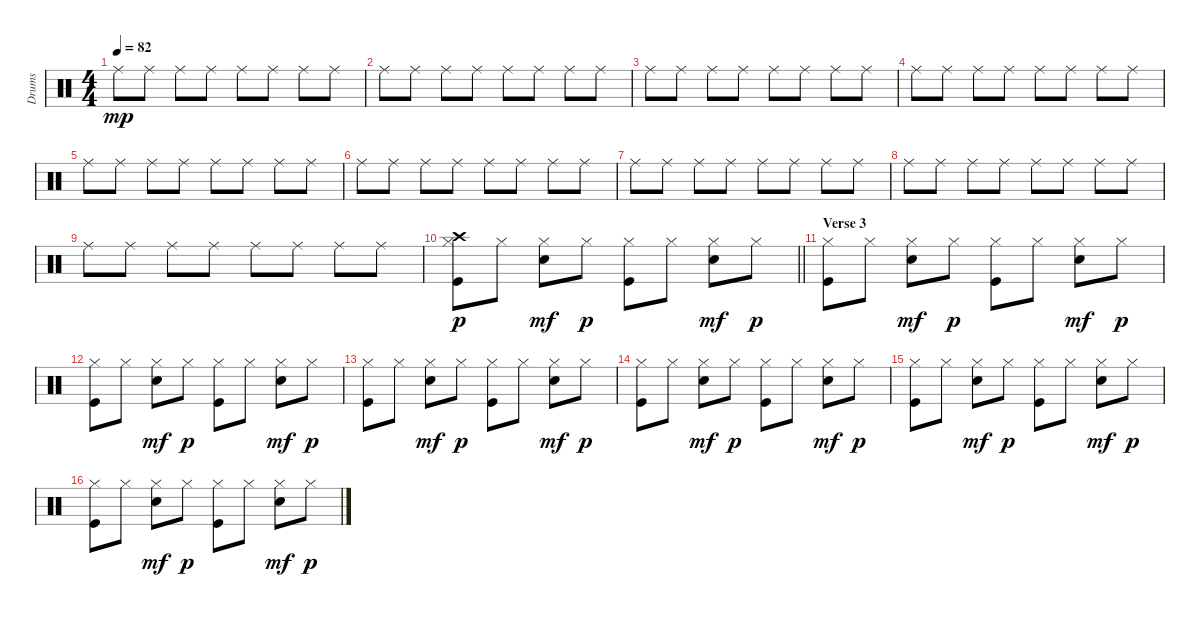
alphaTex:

\track ("Drums" "Drums") {instrument percussion}
\staff {score}
\articulation defaults
\ts (4 4)
\tempo 82
\clef neutral
\ks c "Ride (middle)".8{dy mp} "Ride (middle)".8 "Ride (middle)".8 "Ride (middle)".8 "Ride (middle)".8 "Ride (middle)".8 "Ride (middle)".8 "Ride (middle)".8
|
"Ride (middle)".8 "Ride (middle)".8 "Ride (middle)".8 "Ride (middle)".8 "Ride (middle)".8 "Ride (middle)".8 "Ride (middle)".8 "Ride (middle)".8 |
"Ride (middle)".8 "Ride (middle)".8 "Ride (middle)".8 "Ride (middle)".8 "Ride (middle)".8 "Ride (middle)".8 "Ride (middle)".8 "Ride (middle)".8 |
"Ride (middle)".8 "Ride (middle)".8 "Ride (middle)".8 "Ride (middle)".8 "Ride (middle)".8 "Ride (middle)".8 "Ride (middle)".8 "Ride (middle)".8 |
"Ride (middle)".8 "Ride (middle)".8 "Ride (middle)".8 "Ride (middle)".8 "Ride (middle)".8 "Ride (middle)".8 "Ride (middle)".8 "Ride (middle)".8 |
"Ride (middle)".8 "Ride (middle)".8 "Ride (middle)".8 "Ride (middle)".8 "Ride (middle)".8 "Ride (middle)".8 "Ride (middle)".8 "Ride (middle)".8 |
"Ride (middle)".8 "Ride (middle)".8 "Ride (middle)".8 "Ride (middle)".8 "Ride (middle)".8 "Ride (middle)".8 "Ride (middle)".8 "Ride (middle)".8 |
"Ride (middle)".8 "Ride (middle)".8 "Ride (middle)".8 "Ride (middle)".8 "Ride (middle)".8 "Ride (middle)".8 "Ride (middle)".8 "Ride (middle)".8 |
"Ride (middle)".8 "Ride (middle)".8 "Ride (middle)".8 "Ride (middle)".8 "Ride (middle)".8 "Ride (middle)".8 "Ride (middle)".8 "Ride (middle)".8 |
\barLineRight lightlight
("Crash high (hit)" "Hi-Hat (closed)" "Kick (hit)").8{dy p} "Hi-Hat (closed)".8 ("Hi-Hat (closed)" "Snare (hit) 2").8{dy mf} "Hi-Hat (closed)".8{dy p} ("Hi-Hat (closed)" "Kick (hit)").8 "Hi-Hat (closed)".8 ("Hi-Hat (closed)" "Snare (hit) 2").8{dy mf} "Hi-Hat (closed)".8{dy p} |
\section ("" "Verse 3")
("Hi-Hat (closed)" "Kick (hit)").8 "Hi-Hat (closed)".8 ("Hi-Hat (closed)" "Snare (hit) 2").8{dy mf} "Hi-Hat (closed)".8{dy p} ("Hi-Hat (closed)" "Kick (hit)").8 "Hi-Hat (closed)".8 ("Hi-Hat (closed)" "Snare (hit) 2").8{dy mf} "Hi-Hat (closed)".8{dy p} |
("Hi-Hat (closed)" "Kick (hit)").8 "Hi-Hat (closed)".8 ("Hi-Hat (closed)" "Snare (hit) 2").8{dy mf} "Hi-Hat (closed)".8{dy p} ("Hi-Hat (closed)" "Kick (hit)").8 "Hi-Hat (closed)".8 ("Hi-Hat (closed)" "Snare (hit) 2").8{dy mf} "Hi-Hat (closed)".8{dy p} |
("Hi-Hat (closed)" "Kick (hit)").8 "Hi-Hat (closed)".8 ("Hi-Hat (closed)" "Snare (hit) 2").8{dy mf} "Hi-Hat (closed)".8{dy p} ("Hi-Hat (closed)" "Kick (hit)").8 "Hi-Hat (closed)".8 ("Hi-Hat (closed)" "Snare (hit) 2").8{dy mf} "Hi-Hat (closed)".8{dy p} |
("Hi-Hat (closed)" "Kick (hit)").8 "Hi-Hat (closed)".8 ("Hi-Hat (closed)" "Snare (hit) 2").8{dy mf} "Hi-Hat (closed)".8{dy p} ("Hi-Hat (closed)" "Kick (hit)").8 "Hi-Hat (closed)".8 ("Hi-Hat (closed)" "Snare (hit) 2").8{dy mf} "Hi-Hat (closed)".8{dy p} |
("Hi-Hat (closed)" "Kick (hit)").8 "Hi-Hat (closed)".8 ("Hi-Hat (closed)" "Snare (hit) 2").8{dy mf} "Hi-Hat (closed)".8{dy p} ("Hi-Hat (closed)" "Kick (hit)").8 "Hi-Hat (closed)".8 ("Hi-Hat (closed)" "Snare (hit) 2").8{dy mf} "Hi-Hat (closed)".8{dy p} |
("Hi-Hat (closed)" "Kick (hit)").8 "Hi-Hat (closed)".8 ("Hi-Hat (closed)" "Snare (hit) 2").8{dy mf} "Hi-Hat (closed)".8{dy p} ("Hi-Hat (closed)" "Kick (hit)").8 "Hi-Hat (closed)".8 ("Hi-Hat (closed)" "Snare (hit) 2").8{dy mf} "Hi-Hat (closed)".8{dy p}
